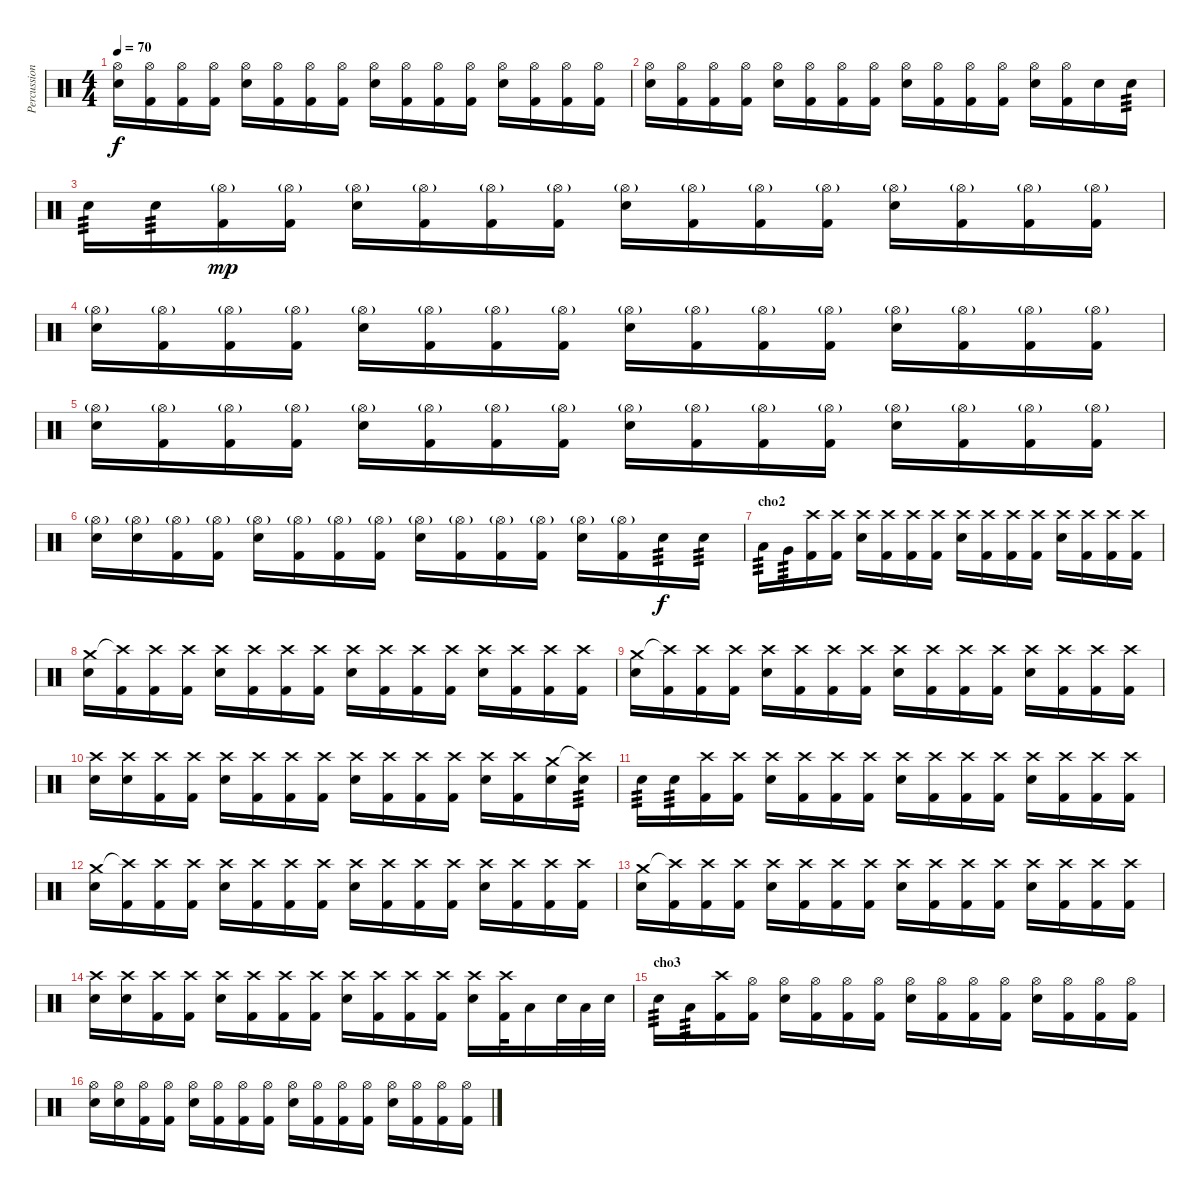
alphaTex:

\track ("Percussion" "Percussion") {instrument percussion}
\staff {score}
\articulation defaults
\ts (4 4)
\tempo 70
\clef neutral
\ks c
("Hi-Hat (open)" "Electric Snare (hit)").16{dy f} ("Hi-Hat (open)" "Kick (hit) 2").16 ("Hi-Hat (open)" "Kick (hit) 2").16 ("Hi-Hat (open)" "Kick (hit) 2").16 ("Hi-Hat (open)" "Electric Snare (hit)").16 ("Hi-Hat (open)" "Kick (hit) 2").16 ("Hi-Hat (open)" "Kick (hit) 2").16 ("Hi-Hat (open)" "Kick (hit) 2").16 ("Hi-Hat (open)" "Electric Snare (hit)").16 ("Hi-Hat (open)" "Kick (hit) 2").16 ("Hi-Hat (open)" "Kick (hit) 2").16 ("Hi-Hat (open)" "Kick (hit) 2").16 ("Hi-Hat (open)" "Electric Snare (hit)").16 ("Hi-Hat (open)" "Kick (hit) 2").16 ("Hi-Hat (open)" "Kick (hit) 2").16 ("Hi-Hat (open)" "Kick (hit) 2").16 |
("Hi-Hat (open)" "Electric Snare (hit)").16 ("Hi-Hat (open)" "Kick (hit) 2").16 ("Hi-Hat (open)" "Kick (hit) 2").16 ("Hi-Hat (open)" "Kick (hit) 2").16 ("Hi-Hat (open)" "Electric Snare (hit)").16 ("Hi-Hat (open)" "Kick (hit) 2").16 ("Hi-Hat (open)" "Kick (hit) 2").16 ("Hi-Hat (open)" "Kick (hit) 2").16 ("Hi-Hat (open)" "Electric Snare (hit)").16 ("Hi-Hat (open)" "Kick (hit) 2").16 ("Hi-Hat (open)" "Kick (hit) 2").16 ("Hi-Hat (open)" "Kick (hit) 2").16 ("Hi-Hat (open)" "Electric Snare (hit)").16 ("Hi-Hat (open)" "Kick (hit) 2").16 "Electric Snare (hit)".16 "Electric Snare (hit)".16{tp 3} |
"Electric Snare (hit)".16{tp 3} "Electric Snare (hit)".16{tp 3} ("Hi-Hat (open)"{g} "Kick (hit) 2").16{dy mp} ("Hi-Hat (open)"{g} "Kick (hit) 2").16 ("Hi-Hat (open)"{g} "Electric Snare (hit)").16 ("Hi-Hat (open)"{g} "Kick (hit) 2").16 ("Hi-Hat (open)"{g} "Kick (hit) 2").16 ("Hi-Hat (open)"{g} "Kick (hit) 2").16 ("Hi-Hat (open)"{g} "Electric Snare (hit)").16 ("Hi-Hat (open)"{g} "Kick (hit) 2").16 ("Hi-Hat (open)"{g} "Kick (hit) 2").16 ("Hi-Hat (open)"{g} "Kick (hit) 2").16 ("Hi-Hat (open)"{g} "Electric Snare (hit)").16 ("Hi-Hat (open)"{g} "Kick (hit) 2").16 ("Hi-Hat (open)"{g} "Kick (hit) 2").16 ("Hi-Hat (open)"{g} "Kick (hit) 2").16 |
("Hi-Hat (open)"{g} "Electric Snare (hit)").16 ("Hi-Hat (open)"{g} "Kick (hit) 2").16 ("Hi-Hat (open)"{g} "Kick (hit) 2").16 ("Hi-Hat (open)"{g} "Kick (hit) 2").16 ("Hi-Hat (open)"{g} "Electric Snare (hit)").16 ("Hi-Hat (open)"{g} "Kick (hit) 2").16 ("Hi-Hat (open)"{g} "Kick (hit) 2").16 ("Hi-Hat (open)"{g} "Kick (hit) 2").16 ("Hi-Hat (open)"{g} "Electric Snare (hit)").16 ("Hi-Hat (open)"{g} "Kick (hit) 2").16 ("Hi-Hat (open)"{g} "Kick (hit) 2").16 ("Hi-Hat (open)"{g} "Kick (hit) 2").16 ("Hi-Hat (open)"{g} "Electric Snare (hit)").16 ("Hi-Hat (open)"{g} "Kick (hit) 2").16 ("Hi-Hat (open)"{g} "Kick (hit) 2").16 ("Hi-Hat (open)"{g} "Kick (hit) 2").16 |
("Hi-Hat (open)"{g} "Electric Snare (hit)").16 ("Hi-Hat (open)"{g} "Kick (hit) 2").16 ("Hi-Hat (open)"{g} "Kick (hit) 2").16 ("Hi-Hat (open)"{g} "Kick (hit) 2").16 ("Hi-Hat (open)"{g} "Electric Snare (hit)").16 ("Hi-Hat (open)"{g} "Kick (hit) 2").16 ("Hi-Hat (open)"{g} "Kick (hit) 2").16 ("Hi-Hat (open)"{g} "Kick (hit) 2").16 ("Hi-Hat (open)"{g} "Electric Snare (hit)").16 ("Hi-Hat (open)"{g} "Kick (hit) 2").16 ("Hi-Hat (open)"{g} "Kick (hit) 2").16 ("Hi-Hat (open)"{g} "Kick (hit) 2").16 ("Hi-Hat (open)"{g} "Electric Snare (hit)").16 ("Hi-Hat (open)"{g} "Kick (hit) 2").16 ("Hi-Hat (open)"{g} "Kick (hit) 2").16 ("Hi-Hat (open)"{g} "Kick (hit) 2").16 |
("Hi-Hat (open)"{g} "Electric Snare (hit)").16 ("Hi-Hat (open)"{g} "Electric Snare (hit)").16 ("Hi-Hat (open)"{g} "Kick (hit) 2").16 ("Hi-Hat (open)"{g} "Kick (hit) 2").16 ("Hi-Hat (open)"{g} "Electric Snare (hit)").16 ("Hi-Hat (open)"{g} "Kick (hit) 2").16 ("Hi-Hat (open)"{g} "Kick (hit) 2").16 ("Hi-Hat (open)"{g} "Kick (hit) 2").16 ("Hi-Hat (open)"{g} "Electric Snare (hit)").16 ("Hi-Hat (open)"{g} "Kick (hit) 2").16 ("Hi-Hat (open)"{g} "Kick (hit) 2").16 ("Hi-Hat (open)"{g} "Kick (hit) 2").16 ("Hi-Hat (open)"{g} "Electric Snare (hit)").16 ("Hi-Hat (open)"{g} "Kick (hit) 2").16 "Electric Snare (hit)".16{tp 3 dy f} "Electric Snare (hit)".16{tp 3} |
\section ("" "cho2")
"Low Tom (hit)".16{tp 3} "Very Low Tom (hit)".16{tp 3} ("Crash high (hit)" "Kick (hit) 2").16 ("Crash high (hit)" "Kick (hit) 2").16 ("Crash high (hit)" "Electric Snare (hit)").16 ("Crash high (hit)" "Kick (hit) 2").16 ("Crash high (hit)" "Kick (hit) 2").16 ("Crash high (hit)" "Kick (hit) 2").16 ("Crash high (hit)" "Electric Snare (hit)").16 ("Crash high (hit)" "Kick (hit) 2").16 ("Crash high (hit)" "Kick (hit) 2").16 ("Crash high (hit)" "Kick (hit) 2").16 ("Crash high (hit)" "Electric Snare (hit)").16 ("Crash high (hit)" "Kick (hit) 2").16 ("Crash high (hit)" "Kick (hit) 2").16 ("Crash high (hit)" "Kick (hit) 2").16 |
("Crash medium (hit)" "Electric Snare (hit)").16 ("Crash high (hit)"{t} "Kick (hit) 2").16 ("Crash high (hit)" "Kick (hit) 2").16 ("Crash high (hit)" "Kick (hit) 2").16 ("Crash high (hit)" "Electric Snare (hit)").16 ("Crash high (hit)" "Kick (hit) 2").16 ("Crash high (hit)" "Kick (hit) 2").16 ("Crash high (hit)" "Kick (hit) 2").16 ("Crash high (hit)" "Electric Snare (hit)").16 ("Crash high (hit)" "Kick (hit) 2").16 ("Crash high (hit)" "Kick (hit) 2").16 ("Crash high (hit)" "Kick (hit) 2").16 ("Crash high (hit)" "Electric Snare (hit)").16 ("Crash high (hit)" "Kick (hit) 2").16 ("Crash high (hit)" "Kick (hit) 2").16 ("Crash high (hit)" "Kick (hit) 2").16 |
("Crash medium (hit)" "Electric Snare (hit)").16 ("Crash high (hit)"{t} "Kick (hit) 2").16 ("Crash high (hit)" "Kick (hit) 2").16 ("Crash high (hit)" "Kick (hit) 2").16 ("Crash high (hit)" "Electric Snare (hit)").16 ("Crash high (hit)" "Kick (hit) 2").16 ("Crash high (hit)" "Kick (hit) 2").16 ("Crash high (hit)" "Kick (hit) 2").16 ("Crash high (hit)" "Electric Snare (hit)").16 ("Crash high (hit)" "Kick (hit) 2").16 ("Crash high (hit)" "Kick (hit) 2").16 ("Crash high (hit)" "Kick (hit) 2").16 ("Crash high (hit)" "Electric Snare (hit)").16 ("Crash high (hit)" "Kick (hit) 2").16 ("Crash high (hit)" "Kick (hit) 2").16 ("Crash high (hit)" "Kick (hit) 2").16 |
("Crash high (hit)" "Electric Snare (hit)").16 ("Crash high (hit)" "Electric Snare (hit)").16 ("Crash high (hit)" "Kick (hit) 2").16 ("Crash high (hit)" "Kick (hit) 2").16 ("Crash high (hit)" "Electric Snare (hit)").16 ("Crash high (hit)" "Kick (hit) 2").16 ("Crash high (hit)" "Kick (hit) 2").16 ("Crash high (hit)" "Kick (hit) 2").16 ("Crash high (hit)" "Electric Snare (hit)").16 ("Crash high (hit)" "Kick (hit) 2").16 ("Crash high (hit)" "Kick (hit) 2").16 ("Crash high (hit)" "Kick (hit) 2").16 ("Crash high (hit)" "Electric Snare (hit)").16 ("Crash high (hit)" "Kick (hit) 2").16 ("Crash medium (hit)" "Electric Snare (hit)").16 ("Crash high (hit)"{t} "Electric Snare (hit)").16{tp 3} |
"Electric Snare (hit)".16{tp 3} "Electric Snare (hit)".16{tp 3} ("Crash high (hit)" "Kick (hit) 2").16 ("Crash high (hit)" "Kick (hit) 2").16 ("Crash high (hit)" "Electric Snare (hit)").16 ("Crash high (hit)" "Kick (hit) 2").16 ("Crash high (hit)" "Kick (hit) 2").16 ("Crash high (hit)" "Kick (hit) 2").16 ("Crash high (hit)" "Electric Snare (hit)").16 ("Crash high (hit)" "Kick (hit) 2").16 ("Crash high (hit)" "Kick (hit) 2").16 ("Crash high (hit)" "Kick (hit) 2").16 ("Crash high (hit)" "Electric Snare (hit)").16 ("Crash high (hit)" "Kick (hit) 2").16 ("Crash high (hit)" "Kick (hit) 2").16 ("Crash high (hit)" "Kick (hit) 2").16 |
("Crash medium (hit)" "Electric Snare (hit)").16 ("Crash high (hit)"{t} "Kick (hit) 2").16 ("Crash high (hit)" "Kick (hit) 2").16 ("Crash high (hit)" "Kick (hit) 2").16 ("Crash high (hit)" "Electric Snare (hit)").16 ("Crash high (hit)" "Kick (hit) 2").16 ("Crash high (hit)" "Kick (hit) 2").16 ("Crash high (hit)" "Kick (hit) 2").16 ("Crash high (hit)" "Electric Snare (hit)").16 ("Crash high (hit)" "Kick (hit) 2").16 ("Crash high (hit)" "Kick (hit) 2").16 ("Crash high (hit)" "Kick (hit) 2").16 ("Crash high (hit)" "Electric Snare (hit)").16 ("Crash high (hit)" "Kick (hit) 2").16 ("Crash high (hit)" "Kick (hit) 2").16 ("Crash high (hit)" "Kick (hit) 2").16 |
("Crash medium (hit)" "Electric Snare (hit)").16 ("Crash high (hit)"{t} "Kick (hit) 2").16 ("Crash high (hit)" "Kick (hit) 2").16 ("Crash high (hit)" "Kick (hit) 2").16 ("Crash high (hit)" "Electric Snare (hit)").16 ("Crash high (hit)" "Kick (hit) 2").16 ("Crash high (hit)" "Kick (hit) 2").16 ("Crash high (hit)" "Kick (hit) 2").16 ("Crash high (hit)" "Electric Snare (hit)").16 ("Crash high (hit)" "Kick (hit) 2").16 ("Crash high (hit)" "Kick (hit) 2").16 ("Crash high (hit)" "Kick (hit) 2").16 ("Crash high (hit)" "Electric Snare (hit)").16 ("Crash high (hit)" "Kick (hit) 2").16 ("Crash high (hit)" "Kick (hit) 2").16 ("Crash high (hit)" "Kick (hit) 2").16 |
("Crash high (hit)" "Electric Snare (hit)").16 ("Crash high (hit)" "Electric Snare (hit)").16 ("Crash high (hit)" "Kick (hit) 2").16 ("Crash high (hit)" "Kick (hit) 2").16 ("Crash high (hit)" "Electric Snare (hit)").16 ("Crash high (hit)" "Kick (hit) 2").16 ("Crash high (hit)" "Kick (hit) 2").16 ("Crash high (hit)" "Kick (hit) 2").16 ("Crash high (hit)" "Electric Snare (hit)").16 ("Crash high (hit)" "Kick (hit) 2").16 ("Crash high (hit)" "Kick (hit) 2").16 ("Crash high (hit)" "Kick (hit) 2").16 ("Crash high (hit)" "Electric Snare (hit)").16 ("Crash high (hit)" "Kick (hit) 2").32 "Low Tom (hit)".16 "Electric Snare (hit)".32 "Low Tom (hit)".32 "Electric Snare (hit)".32 |
\section ("" "cho3")
"Electric Snare (hit)".16{tp 3} "Low Tom (hit)".16{tp 3} ("Crash high (hit)" "Kick (hit) 2").16 ("Hi-Hat (open)" "Kick (hit) 2").16 ("Hi-Hat (open)" "Electric Snare (hit)").16 ("Hi-Hat (open)" "Kick (hit) 2").16 ("Hi-Hat (open)" "Kick (hit) 2").16 ("Hi-Hat (open)" "Kick (hit) 2").16 ("Hi-Hat (open)" "Electric Snare (hit)").16 ("Hi-Hat (open)" "Kick (hit) 2").16 ("Hi-Hat (open)" "Kick (hit) 2").16 ("Hi-Hat (open)" "Kick (hit) 2").16 ("Hi-Hat (open)" "Electric Snare (hit)").16 ("Hi-Hat (open)" "Kick (hit) 2").16 ("Hi-Hat (open)" "Kick (hit) 2").16 ("Hi-Hat (open)" "Kick (hit) 2").16 |
("Hi-Hat (open)" "Electric Snare (hit)").16 ("Hi-Hat (open)" "Electric Snare (hit)").16 ("Hi-Hat (open)" "Kick (hit) 2").16 ("Hi-Hat (open)" "Kick (hit) 2").16 ("Hi-Hat (open)" "Electric Snare (hit)").16 ("Hi-Hat (open)" "Kick (hit) 2").16 ("Hi-Hat (open)" "Kick (hit) 2").16 ("Hi-Hat (open)" "Kick (hit) 2").16 ("Hi-Hat (open)" "Electric Snare (hit)").16 ("Hi-Hat (open)" "Kick (hit) 2").16 ("Hi-Hat (open)" "Kick (hit) 2").16 ("Hi-Hat (open)" "Kick (hit) 2").16 ("Hi-Hat (open)" "Electric Snare (hit)").16 ("Hi-Hat (open)" "Kick (hit) 2").16 ("Hi-Hat (open)" "Kick (hit) 2").16 ("Hi-Hat (open)" "Kick (hit) 2").16
